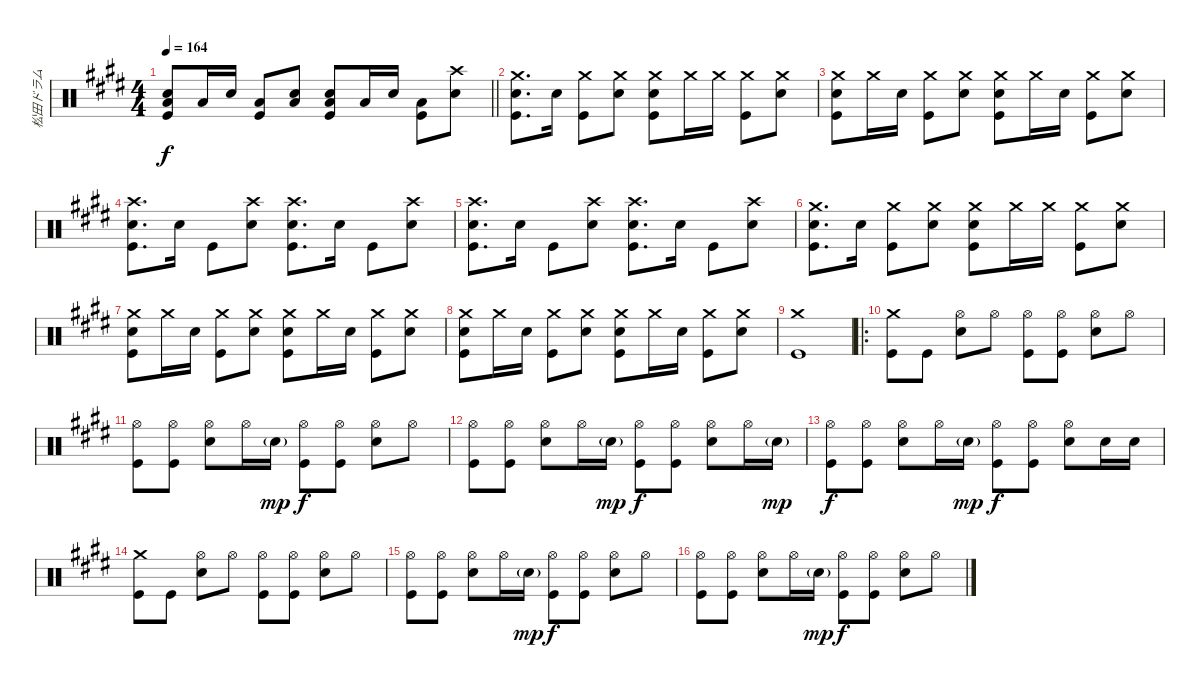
\track ("松田ドラム" "松田ドラム") {instrument percussion}
\staff {score}
\articulation defaults
\ts (4 4)
\tempo 164
\clef neutral
\barLineRight lightlight
\ks e
("Low Floor Tom (hit)" "Snare (hit) 2" "Kick (hit)").8{dy f} "Low Floor Tom (hit)".16 "Snare (hit) 2".16 ("Low Floor Tom (hit)" "Kick (hit)").8 ("Low Floor Tom (hit)" "Snare (hit) 2").8 ("Low Floor Tom (hit)" "Snare (hit) 2" "Kick (hit)").8 "Low Floor Tom (hit)".16 "Snare (hit) 2".16 ("Low Floor Tom (hit)" "Kick (hit)").8 ("Crash high (hit)" "Snare (hit) 2").8 |
("Crash medium (hit)" "Snare (hit) 2" "Kick (hit)").8{d} "Snare (hit) 2".16 ("Crash medium (hit)" "Kick (hit)").8 ("Crash medium (hit)" "Snare (hit) 2").8 ("Crash medium (hit)" "Snare (hit) 2" "Kick (hit)").8 "Crash medium (hit)".16 "Crash medium (hit)".16 ("Crash medium (hit)" "Kick (hit)").8 ("Crash medium (hit)" "Snare (hit) 2").8 |
("Crash medium (hit)" "Snare (hit) 2" "Kick (hit)").8 "Crash medium (hit)".16 "Snare (hit) 2".16 ("Crash medium (hit)" "Kick (hit)").8 ("Crash medium (hit)" "Snare (hit) 2").8 ("Crash medium (hit)" "Snare (hit) 2" "Kick (hit)").8 "Crash medium (hit)".16 "Snare (hit) 2".16 ("Crash medium (hit)" "Kick (hit)").8 ("Crash medium (hit)" "Snare (hit) 2").8 |
("Crash high (hit)" "Snare (hit) 2" "Kick (hit)").8{d} "Snare (hit) 2".16 "Kick (hit)".8 ("Crash high (hit)" "Snare (hit) 2").8 ("Crash high (hit)" "Snare (hit) 2" "Kick (hit)").8{d} "Snare (hit) 2".16 "Kick (hit)".8 ("Crash high (hit)" "Snare (hit) 2").8 |
("Crash high (hit)" "Snare (hit) 2" "Kick (hit)").8{d} "Snare (hit) 2".16 "Kick (hit)".8 ("Crash high (hit)" "Snare (hit) 2").8 ("Crash high (hit)" "Snare (hit) 2" "Kick (hit)").8{d} "Snare (hit) 2".16 "Kick (hit)".8 ("Crash high (hit)" "Snare (hit) 2").8 |
("Crash medium (hit)" "Snare (hit) 2" "Kick (hit)").8{d} "Snare (hit) 2".16 ("Crash medium (hit)" "Kick (hit)").8 ("Crash medium (hit)" "Snare (hit) 2").8 ("Crash medium (hit)" "Snare (hit) 2" "Kick (hit)").8 "Crash medium (hit)".16 "Crash medium (hit)".16 ("Crash medium (hit)" "Kick (hit)").8 ("Crash medium (hit)" "Snare (hit) 2").8 |
("Crash medium (hit)" "Snare (hit) 2" "Kick (hit)").8 "Crash medium (hit)".16 "Snare (hit) 2".16 ("Crash medium (hit)" "Kick (hit)").8 ("Crash medium (hit)" "Snare (hit) 2").8 ("Crash medium (hit)" "Snare (hit) 2" "Kick (hit)").8 "Crash medium (hit)".16 "Snare (hit) 2".16 ("Crash medium (hit)" "Kick (hit)").8 ("Crash medium (hit)" "Snare (hit) 2").8 |
("Crash medium (hit)" "Snare (hit) 2" "Kick (hit)").8 "Crash medium (hit)".16 "Snare (hit) 2".16 ("Crash medium (hit)" "Kick (hit)").8 ("Crash medium (hit)" "Snare (hit) 2").8 ("Crash medium (hit)" "Snare (hit) 2" "Kick (hit)").8 "Crash medium (hit)".16 "Snare (hit) 2".16 ("Crash medium (hit)" "Kick (hit)").8 ("Crash medium (hit)" "Snare (hit) 2").8 |
("Crash medium (hit)" "Kick (hit)").1 |
\ro
("Crash medium (hit)" "Kick (hit)").8 "Kick (hit)".8 ("Hi-Hat (open)" "Snare (hit) 2").8 "Hi-Hat (open)".8 ("Hi-Hat (open)" "Kick (hit)").8 ("Hi-Hat (open)" "Kick (hit)").8 ("Hi-Hat (open)" "Snare (hit) 2").8 "Hi-Hat (open)".8 |
("Hi-Hat (open)" "Kick (hit)").8 ("Hi-Hat (open)" "Kick (hit)").8 ("Hi-Hat (open)" "Snare (hit) 2").8 "Hi-Hat (open)".16 "Snare (hit) 2"{g}.16{dy mp} ("Hi-Hat (open)" "Kick (hit)").8{dy f} ("Hi-Hat (open)" "Kick (hit)").8 ("Hi-Hat (open)" "Snare (hit) 2").8 "Hi-Hat (open)".8 |
("Hi-Hat (open)" "Kick (hit)").8 ("Hi-Hat (open)" "Kick (hit)").8 ("Hi-Hat (open)" "Snare (hit) 2").8 "Hi-Hat (open)".16 "Snare (hit) 2"{g}.16{dy mp} ("Hi-Hat (open)" "Kick (hit)").8{dy f} ("Hi-Hat (open)" "Kick (hit)").8 ("Hi-Hat (open)" "Snare (hit) 2").8 "Hi-Hat (open)".16 "Snare (hit) 2"{g}.16{dy mp} |
("Hi-Hat (open)" "Kick (hit)").8{dy f} ("Hi-Hat (open)" "Kick (hit)").8 ("Hi-Hat (open)" "Snare (hit) 2").8 "Hi-Hat (open)".16 "Snare (hit) 2"{g}.16{dy mp} ("Hi-Hat (open)" "Kick (hit)").8{dy f} ("Hi-Hat (open)" "Kick (hit)").8 ("Hi-Hat (open)" "Snare (hit) 2").8 "Snare (hit) 2".16 "Snare (hit) 2".16 |
("Crash medium (hit)" "Kick (hit)").8 "Kick (hit)".8 ("Hi-Hat (open)" "Snare (hit) 2").8 "Hi-Hat (open)".8 ("Hi-Hat (open)" "Kick (hit)").8 ("Hi-Hat (open)" "Kick (hit)").8 ("Hi-Hat (open)" "Snare (hit) 2").8 "Hi-Hat (open)".8 |
("Hi-Hat (open)" "Kick (hit)").8 ("Hi-Hat (open)" "Kick (hit)").8 ("Hi-Hat (open)" "Snare (hit) 2").8 "Hi-Hat (open)".16 "Snare (hit) 2"{g}.16{dy mp} ("Hi-Hat (open)" "Kick (hit)").8{dy f} ("Hi-Hat (open)" "Kick (hit)").8 ("Hi-Hat (open)" "Snare (hit) 2").8 "Hi-Hat (open)".8 |
("Hi-Hat (open)" "Kick (hit)").8 ("Hi-Hat (open)" "Kick (hit)").8 ("Hi-Hat (open)" "Snare (hit) 2").8 "Hi-Hat (open)".16 "Snare (hit) 2"{g}.16{dy mp} ("Hi-Hat (open)" "Kick (hit)").8{dy f} ("Hi-Hat (open)" "Kick (hit)").8 ("Hi-Hat (open)" "Snare (hit) 2").8 "Hi-Hat (open)".8
